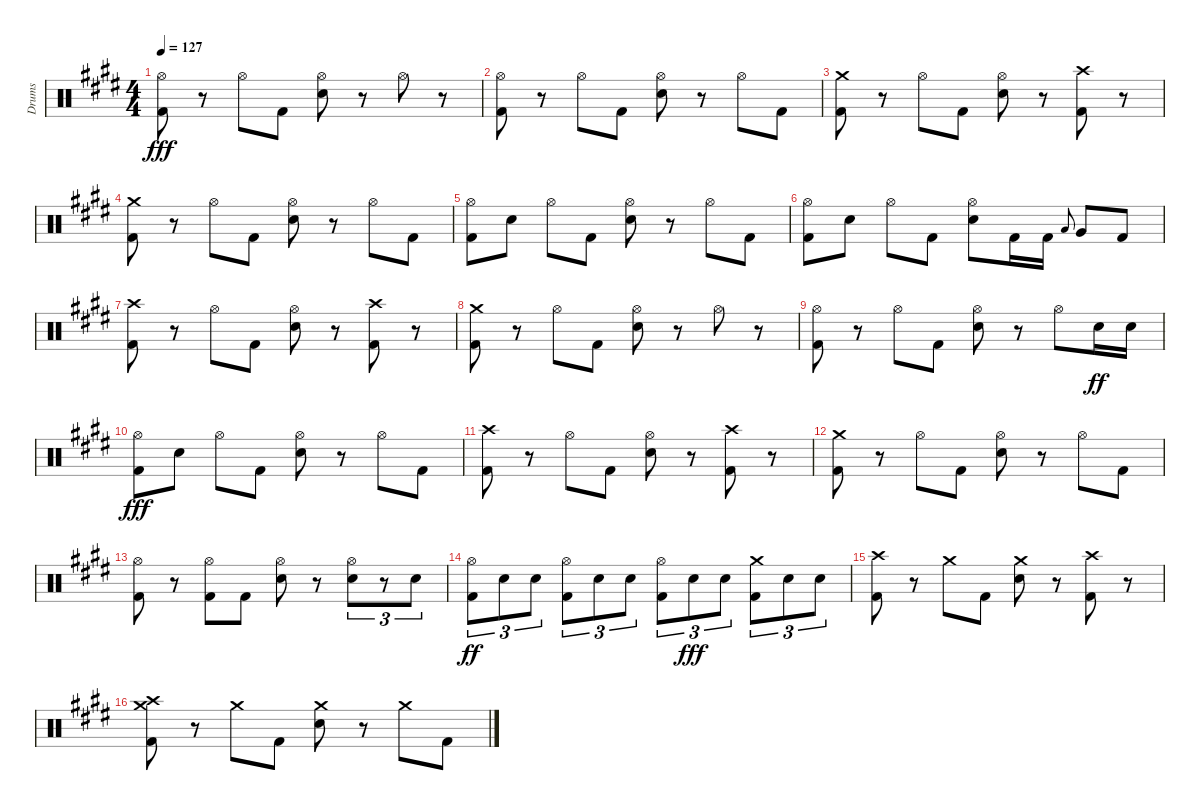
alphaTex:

\track ("Drums" "Drums") {instrument percussion}
\staff {score}
\articulation defaults
\ts (4 4)
\tempo 127
\clef neutral
\ks c#minor
("Hi-Hat (open)" "Kick (hit) 2").8{dy fff} r.8 "Hi-Hat (open)".8 "Kick (hit) 2".8 ("Hi-Hat (open)" "Electric Snare (hit)").8 r.8 "Hi-Hat (open)".8 r.8 |
("Hi-Hat (open)" "Kick (hit) 2").8 r.8 "Hi-Hat (open)".8 "Kick (hit) 2".8 ("Hi-Hat (open)" "Electric Snare (hit)").8 r.8 "Hi-Hat (open)".8 "Kick (hit) 2".8 |
("Crash medium (hit)" "Kick (hit) 2").8 r.8 "Hi-Hat (open)".8 "Kick (hit) 2".8 ("Hi-Hat (open)" "Electric Snare (hit)").8 r.8 ("Crash high (hit)" "Kick (hit) 2").8 r.8 |
("Crash medium (hit)" "Kick (hit) 2").8 r.8 "Hi-Hat (open)".8 "Kick (hit) 2".8 ("Hi-Hat (open)" "Electric Snare (hit)").8 r.8 "Hi-Hat (open)".8 "Kick (hit) 2".8 |
("Hi-Hat (open)" "Kick (hit) 2").8 "Electric Snare (hit)".8 "Hi-Hat (open)".8 "Kick (hit) 2".8 ("Hi-Hat (open)" "Electric Snare (hit)").8 r.8 "Hi-Hat (open)".8 "Kick (hit) 2".8 |
("Hi-Hat (open)" "Kick (hit) 2").8 "Electric Snare (hit)".8 "Hi-Hat (open)".8 "Kick (hit) 2".8 ("Hi-Hat (open)" "Electric Snare (hit)").8 "Kick (hit) 2".16 "Kick (hit) 2".16 "Low Floor Tom (hit)".8{gr onbeat} "Very Low Tom (hit)".8 "Kick (hit) 2".8 |
("Crash high (hit)" "Kick (hit) 2").8 r.8 "Hi-Hat (open)".8 "Kick (hit) 2".8 ("Hi-Hat (open)" "Electric Snare (hit)").8 r.8 ("Crash high (hit)" "Kick (hit) 2").8 r.8 |
("Crash medium (hit)" "Kick (hit) 2").8 r.8 "Hi-Hat (open)".8 "Kick (hit) 2".8 ("Hi-Hat (open)" "Electric Snare (hit)").8 r.8 "Hi-Hat (open)".8 r.8 |
("Hi-Hat (open)" "Kick (hit) 2").8 r.8 "Hi-Hat (open)".8 "Kick (hit) 2".8 ("Hi-Hat (open)" "Electric Snare (hit)").8 r.8 "Hi-Hat (open)".8 "Electric Snare (hit)".16{dy ff} "Electric Snare (hit)".16 |
("Hi-Hat (open)" "Kick (hit) 2").8{dy fff} "Electric Snare (hit)".8 "Hi-Hat (open)".8 "Kick (hit) 2".8 ("Hi-Hat (open)" "Electric Snare (hit)").8 r.8 "Hi-Hat (open)".8 "Kick (hit) 2".8 |
("Crash high (hit)" "Kick (hit) 2").8 r.8 "Hi-Hat (open)".8 "Kick (hit) 2".8 ("Hi-Hat (open)" "Electric Snare (hit)").8 r.8 ("Crash high (hit)" "Kick (hit) 2").8 r.8 |
("Crash medium (hit)" "Kick (hit) 2").8 r.8 "Hi-Hat (open)".8 "Kick (hit) 2".8 ("Hi-Hat (open)" "Electric Snare (hit)").8 r.8 "Hi-Hat (open)".8 "Kick (hit) 2".8 |
("Hi-Hat (open)" "Kick (hit) 2").8 r.8 ("Hi-Hat (open)" "Kick (hit) 2").8 "Kick (hit) 2".8 ("Hi-Hat (open)" "Electric Snare (hit)").8 r.8 ("Hi-Hat (open)" "Electric Snare (hit)").8{tu (3 2)} r.8{tu (3 2)} "Electric Snare (hit)".8{tu (3 2)} |
("Hi-Hat (open)" "Kick (hit) 2").8{tu (3 2) dy ff} "Electric Snare (hit)".8{tu (3 2)} "Electric Snare (hit)".8{tu (3 2)} ("Hi-Hat (open)" "Kick (hit) 2").8{tu (3 2)} "Electric Snare (hit)".8{tu (3 2)} "Electric Snare (hit)".8{tu (3 2)} ("Hi-Hat (open)" "Kick (hit) 2").8{tu (3 2)} "Electric Snare (hit)".8{tu (3 2) dy fff} "Electric Snare (hit)".8{tu (3 2)} ("Crash medium (hit)" "Kick (hit) 2").8{tu (3 2)} "Electric Snare (hit)".8{tu (3 2)} "Electric Snare (hit)".8{tu (3 2)} |
("Crash high (hit)" "Kick (hit) 2").8 r.8 "Crash medium (hit)".8 "Kick (hit) 2".8 ("Crash medium (hit)" "Electric Snare (hit)").8 r.8 ("Crash high (hit)" "Kick (hit) 2").8 r.8 |
("Crash medium (hit)" "Crash high (hit)" "Kick (hit) 2").8 r.8 "Crash medium (hit)".8 "Kick (hit) 2".8 ("Crash medium (hit)" "Electric Snare (hit)").8 r.8 "Crash medium (hit)".8 "Kick (hit) 2".8
